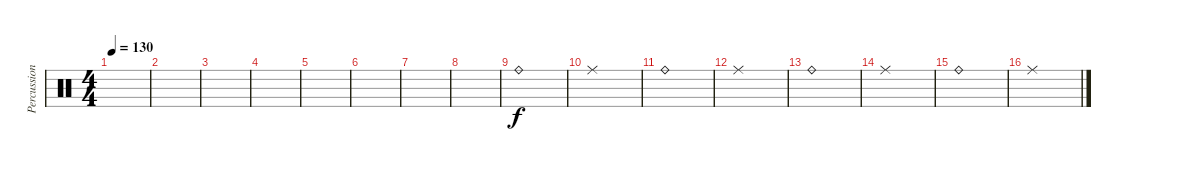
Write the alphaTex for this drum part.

\track ("Percussion" "Percussion") {instrument percussion}
\staff {score}
\articulation defaults
\ts (4 4)
\tempo 130
\clef neutral
\ks c
|
|
|
|
|
|
|
|
"Ride (bell)".1 |
"Ride (middle)".1 |
"Ride (bell)".1 |
"Ride (middle)".1 |
"Ride (bell)".1 |
"Ride (middle)".1 |
"Ride (bell)".1 |
"Ride (middle)".1
